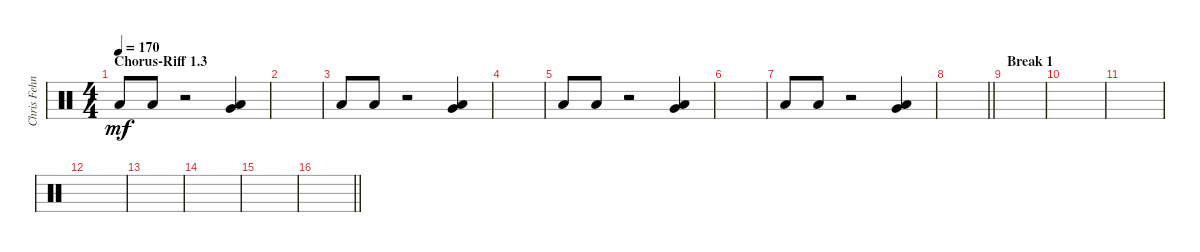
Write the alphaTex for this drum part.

\track ("Chris Fehn" "Chris Fehn") {instrument percussion}
\staff {score}
\articulation defaults
\ts (4 4)
\section ("" "Chorus-Riff 1.3")
\tempo 170
\clef neutral
\ks c "Low Floor Tom (hit)".8{dy mf} "Low Floor Tom (hit)".8
r.2 ("Very Low Tom (hit)" "Low Floor Tom (hit)").4 |
|
"Low Floor Tom (hit)".8 "Low Floor Tom (hit)".8 r.2 ("Very Low Tom (hit)" "Low Floor Tom (hit)").4 |
|
"Low Floor Tom (hit)".8 "Low Floor Tom (hit)".8 r.2 ("Very Low Tom (hit)" "Low Floor Tom (hit)").4 |
|
"Low Floor Tom (hit)".8 "Low Floor Tom (hit)".8 r.2 ("Very Low Tom (hit)" "Low Floor Tom (hit)").4 |
\barLineRight lightlight
|
\section ("" "Break 1")
|
|
|
|
|
|
|
\barLineRight lightlight
